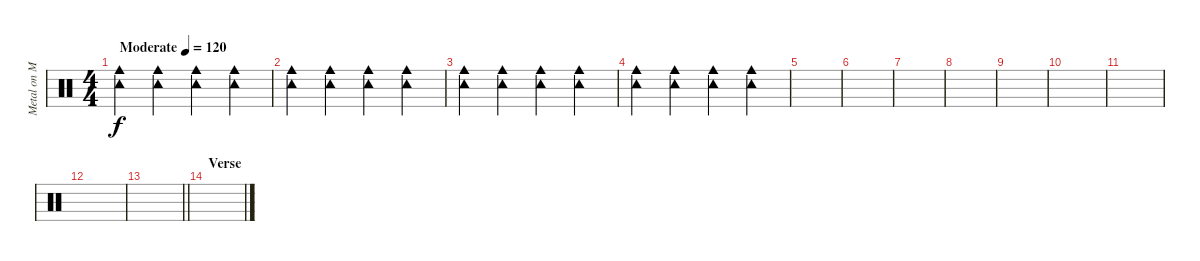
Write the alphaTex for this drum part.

\track ("Metal on Metal" "Metal on M") {instrument percussion}
\staff {score}
\articulation defaults
\ts (4 4)
\tempo (120 "Moderate")
\clef neutral
\ks c
("Cowbell medium (hit)" "Tambourine (hit)").4{dy f} ("Cowbell medium (hit)" "Tambourine (hit)").4 ("Cowbell medium (hit)" "Tambourine (hit)").4 ("Cowbell medium (hit)" "Tambourine (hit)").4 |
("Cowbell medium (hit)" "Tambourine (hit)").4 ("Cowbell medium (hit)" "Tambourine (hit)").4 ("Cowbell medium (hit)" "Tambourine (hit)").4 ("Cowbell medium (hit)" "Tambourine (hit)").4 |
("Cowbell medium (hit)" "Tambourine (hit)").4 ("Cowbell medium (hit)" "Tambourine (hit)").4 ("Cowbell medium (hit)" "Tambourine (hit)").4 ("Cowbell medium (hit)" "Tambourine (hit)").4 |
("Cowbell medium (hit)" "Tambourine (hit)").4 ("Cowbell medium (hit)" "Tambourine (hit)").4 ("Cowbell medium (hit)" "Tambourine (hit)").4 ("Cowbell medium (hit)" "Tambourine (hit)").4 |
|
|
|
|
|
|
|
|
\barLineRight lightlight
|
\section ("" "Verse")
